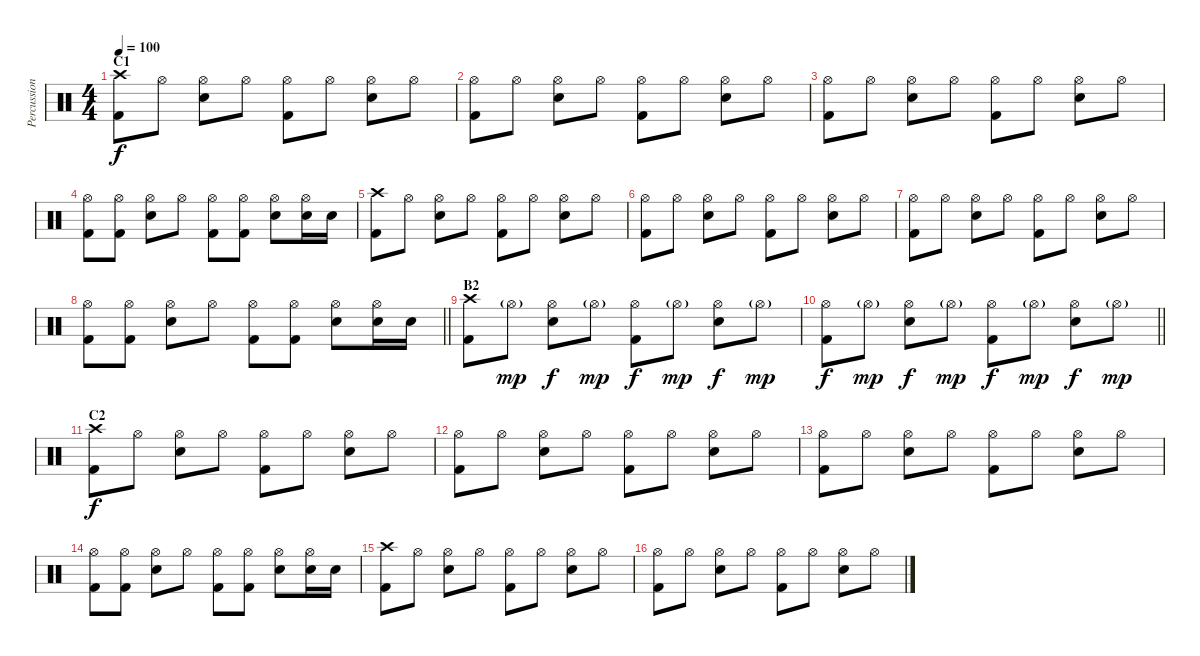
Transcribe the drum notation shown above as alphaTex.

\track ("Percussion" "Percussion") {instrument percussion}
\staff {score}
\articulation defaults
\ts (4 4)
\section ("" "C1")
\tempo 100
\clef neutral
\ks c
("Crash high (hit)" "Kick (hit) 2").8{dy f} "Hi-Hat (open)".8 ("Hi-Hat (open)" "Snare (hit) 2").8 "Hi-Hat (open)".8 ("Hi-Hat (open)" "Kick (hit) 2").8 "Hi-Hat (open)".8 ("Hi-Hat (open)" "Snare (hit) 2").8 "Hi-Hat (open)".8 |
("Hi-Hat (open)" "Kick (hit) 2").8 "Hi-Hat (open)".8 ("Hi-Hat (open)" "Snare (hit) 2").8 "Hi-Hat (open)".8 ("Hi-Hat (open)" "Kick (hit) 2").8 "Hi-Hat (open)".8 ("Hi-Hat (open)" "Snare (hit) 2").8 "Hi-Hat (open)".8 |
("Hi-Hat (open)" "Kick (hit) 2").8 "Hi-Hat (open)".8 ("Hi-Hat (open)" "Snare (hit) 2").8 "Hi-Hat (open)".8 ("Hi-Hat (open)" "Kick (hit) 2").8 "Hi-Hat (open)".8 ("Hi-Hat (open)" "Snare (hit) 2").8 "Hi-Hat (open)".8 |
("Hi-Hat (open)" "Kick (hit) 2").8 ("Hi-Hat (open)" "Kick (hit) 2").8 ("Hi-Hat (open)" "Snare (hit) 2").8 "Hi-Hat (open)".8 ("Hi-Hat (open)" "Kick (hit) 2").8 ("Hi-Hat (open)" "Kick (hit) 2").8 ("Hi-Hat (open)" "Snare (hit) 2").8 ("Hi-Hat (open)" "Snare (hit) 2").16 "Snare (hit) 2".16 |
("Crash high (hit)" "Kick (hit) 2").8 "Hi-Hat (open)".8 ("Hi-Hat (open)" "Snare (hit) 2").8 "Hi-Hat (open)".8 ("Hi-Hat (open)" "Kick (hit) 2").8 "Hi-Hat (open)".8 ("Hi-Hat (open)" "Snare (hit) 2").8 "Hi-Hat (open)".8 |
("Hi-Hat (open)" "Kick (hit) 2").8 "Hi-Hat (open)".8 ("Hi-Hat (open)" "Snare (hit) 2").8 "Hi-Hat (open)".8 ("Hi-Hat (open)" "Kick (hit) 2").8 "Hi-Hat (open)".8 ("Hi-Hat (open)" "Snare (hit) 2").8 "Hi-Hat (open)".8 |
("Hi-Hat (open)" "Kick (hit) 2").8 "Hi-Hat (open)".8 ("Hi-Hat (open)" "Snare (hit) 2").8 "Hi-Hat (open)".8 ("Hi-Hat (open)" "Kick (hit) 2").8 "Hi-Hat (open)".8 ("Hi-Hat (open)" "Snare (hit) 2").8 "Hi-Hat (open)".8 |
\barLineRight lightlight
("Hi-Hat (open)" "Kick (hit) 2").8 ("Hi-Hat (open)" "Kick (hit) 2").8 ("Hi-Hat (open)" "Snare (hit) 2").8 "Hi-Hat (open)".8 ("Hi-Hat (open)" "Kick (hit) 2").8 ("Hi-Hat (open)" "Kick (hit) 2").8 ("Hi-Hat (open)" "Snare (hit) 2").8 ("Hi-Hat (open)" "Snare (hit) 2").16 "Snare (hit) 2".16 |
\section ("" "B2")
("Crash high (hit)" "Kick (hit) 2").8 "Hi-Hat (open)"{g}.8{dy mp} ("Hi-Hat (open)" "Snare (hit) 2").8{dy f} "Hi-Hat (open)"{g}.8{dy mp} ("Hi-Hat (open)" "Kick (hit) 2").8{dy f} "Hi-Hat (open)"{g}.8{dy mp} ("Hi-Hat (open)" "Snare (hit) 2").8{dy f} "Hi-Hat (open)"{g}.8{dy mp} |
\barLineRight lightlight
("Hi-Hat (open)" "Kick (hit) 2").8{dy f} "Hi-Hat (open)"{g}.8{dy mp} ("Hi-Hat (open)" "Snare (hit) 2").8{dy f} "Hi-Hat (open)"{g}.8{dy mp} ("Hi-Hat (open)" "Kick (hit) 2").8{dy f} "Hi-Hat (open)"{g}.8{dy mp} ("Hi-Hat (open)" "Snare (hit) 2").8{dy f} "Hi-Hat (open)"{g}.8{dy mp} |
\section ("" "C2")
("Crash high (hit)" "Kick (hit) 2").8{dy f} "Hi-Hat (open)".8 ("Hi-Hat (open)" "Snare (hit) 2").8 "Hi-Hat (open)".8 ("Hi-Hat (open)" "Kick (hit) 2").8 "Hi-Hat (open)".8 ("Hi-Hat (open)" "Snare (hit) 2").8 "Hi-Hat (open)".8 |
("Hi-Hat (open)" "Kick (hit) 2").8 "Hi-Hat (open)".8 ("Hi-Hat (open)" "Snare (hit) 2").8 "Hi-Hat (open)".8 ("Hi-Hat (open)" "Kick (hit) 2").8 "Hi-Hat (open)".8 ("Hi-Hat (open)" "Snare (hit) 2").8 "Hi-Hat (open)".8 |
("Hi-Hat (open)" "Kick (hit) 2").8 "Hi-Hat (open)".8 ("Hi-Hat (open)" "Snare (hit) 2").8 "Hi-Hat (open)".8 ("Hi-Hat (open)" "Kick (hit) 2").8 "Hi-Hat (open)".8 ("Hi-Hat (open)" "Snare (hit) 2").8 "Hi-Hat (open)".8 |
("Hi-Hat (open)" "Kick (hit) 2").8 ("Hi-Hat (open)" "Kick (hit) 2").8 ("Hi-Hat (open)" "Snare (hit) 2").8 "Hi-Hat (open)".8 ("Hi-Hat (open)" "Kick (hit) 2").8 ("Hi-Hat (open)" "Kick (hit) 2").8 ("Hi-Hat (open)" "Snare (hit) 2").8 ("Hi-Hat (open)" "Snare (hit) 2").16 "Snare (hit) 2".16 |
("Crash high (hit)" "Kick (hit) 2").8 "Hi-Hat (open)".8 ("Hi-Hat (open)" "Snare (hit) 2").8 "Hi-Hat (open)".8 ("Hi-Hat (open)" "Kick (hit) 2").8 "Hi-Hat (open)".8 ("Hi-Hat (open)" "Snare (hit) 2").8 "Hi-Hat (open)".8 |
("Hi-Hat (open)" "Kick (hit) 2").8 "Hi-Hat (open)".8 ("Hi-Hat (open)" "Snare (hit) 2").8 "Hi-Hat (open)".8 ("Hi-Hat (open)" "Kick (hit) 2").8 "Hi-Hat (open)".8 ("Hi-Hat (open)" "Snare (hit) 2").8 "Hi-Hat (open)".8
